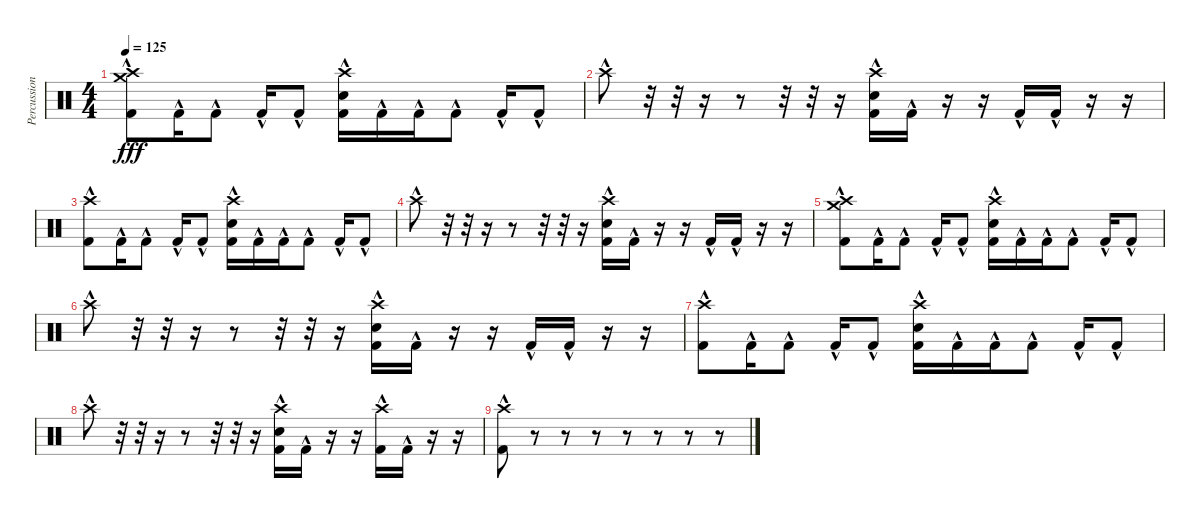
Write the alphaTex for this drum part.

\track ("Percussion" "Percussion") {instrument percussion}
\staff {score}
\articulation defaults
\ts (4 4)
\tempo 125
\clef neutral
\ks c
("Crash high (hit)"{hac} "Crash medium (hit)"{hac} "Kick (hit) 2"{hac}).8{dy fff} "Kick (hit) 2"{hac}.16 "Kick (hit) 2"{hac}.8 "Kick (hit) 2"{hac}.16 "Kick (hit) 2"{hac}.8 ("Crash high (hit)"{hac} "Electric Snare (hit)"{hac} "Kick (hit) 2"{hac}).16 "Kick (hit) 2"{hac}.16 "Kick (hit) 2"{hac}.16 "Kick (hit) 2"{hac}.8 "Kick (hit) 2"{hac}.16 "Kick (hit) 2"{hac}.8 |
"Crash high (hit)"{hac}.8 r.32 r.32 r.16 r.8 r.32 r.32 r.16 ("Crash high (hit)"{hac} "Electric Snare (hit)"{hac} "Kick (hit) 2"{hac}).16 "Kick (hit) 2"{hac}.16 r.16 r.16 "Kick (hit) 2"{hac}.16 "Kick (hit) 2"{hac}.16 r.16 r.16 |
("Crash high (hit)"{hac} "Kick (hit) 2"{hac}).8 "Kick (hit) 2"{hac}.16 "Kick (hit) 2"{hac}.8 "Kick (hit) 2"{hac}.16 "Kick (hit) 2"{hac}.8 ("Crash high (hit)"{hac} "Electric Snare (hit)"{hac} "Kick (hit) 2"{hac}).16 "Kick (hit) 2"{hac}.16 "Kick (hit) 2"{hac}.16 "Kick (hit) 2"{hac}.8 "Kick (hit) 2"{hac}.16 "Kick (hit) 2"{hac}.8 |
"Crash high (hit)"{hac}.8 r.32 r.32 r.16 r.8 r.32 r.32 r.16 ("Crash high (hit)"{hac} "Electric Snare (hit)"{hac} "Kick (hit) 2"{hac}).16 "Kick (hit) 2"{hac}.16 r.16 r.16 "Kick (hit) 2"{hac}.16 "Kick (hit) 2"{hac}.16 r.16 r.16 |
("Crash high (hit)"{hac} "Crash medium (hit)"{hac} "Kick (hit) 2"{hac}).8 "Kick (hit) 2"{hac}.16 "Kick (hit) 2"{hac}.8 "Kick (hit) 2"{hac}.16 "Kick (hit) 2"{hac}.8 ("Crash high (hit)"{hac} "Electric Snare (hit)"{hac} "Kick (hit) 2"{hac}).16 "Kick (hit) 2"{hac}.16 "Kick (hit) 2"{hac}.16 "Kick (hit) 2"{hac}.8 "Kick (hit) 2"{hac}.16 "Kick (hit) 2"{hac}.8 |
"Crash high (hit)"{hac}.8 r.32 r.32 r.16 r.8 r.32 r.32 r.16 ("Crash high (hit)"{hac} "Electric Snare (hit)"{hac} "Kick (hit) 2"{hac}).16 "Kick (hit) 2"{hac}.16 r.16 r.16 "Kick (hit) 2"{hac}.16 "Kick (hit) 2"{hac}.16 r.16 r.16 |
("Crash high (hit)"{hac} "Kick (hit) 2"{hac}).8 "Kick (hit) 2"{hac}.16 "Kick (hit) 2"{hac}.8 "Kick (hit) 2"{hac}.16 "Kick (hit) 2"{hac}.8 ("Crash high (hit)"{hac} "Electric Snare (hit)"{hac} "Kick (hit) 2"{hac}).16 "Kick (hit) 2"{hac}.16 "Kick (hit) 2"{hac}.16 "Kick (hit) 2"{hac}.8 "Kick (hit) 2"{hac}.16 "Kick (hit) 2"{hac}.8 |
"Crash high (hit)"{hac}.8 r.32 r.32 r.16 r.8 r.32 r.32 r.16 ("Crash high (hit)"{hac} "Electric Snare (hit)"{hac} "Kick (hit) 2"{hac}).16 "Kick (hit) 2"{hac}.16 r.16 r.16 ("Crash high (hit)"{hac} "Kick (hit) 2"{hac}).16 "Kick (hit) 2"{hac}.16 r.16 r.16 |
("Crash high (hit)"{hac} "Kick (hit) 2"{hac}).8 r.8 r.8 r.8 r.8 r.8 r.8 r.8
